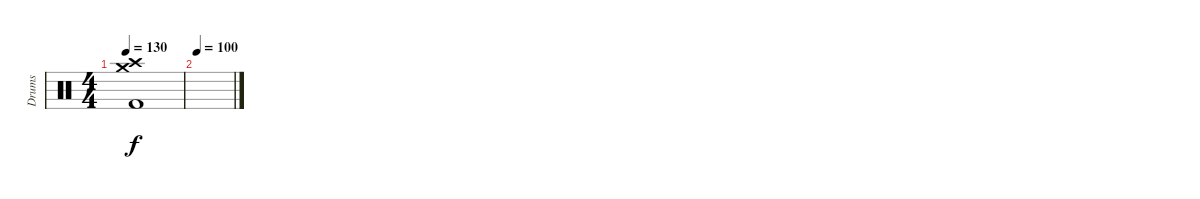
\track ("Drums" "Drums") {instrument percussion}
\staff {score}
\articulation defaults
\ts (4 4)
\tempo 130
\clef neutral
\ks c
("Kick (hit) 2" "Crash high (hit)" "Crash medium (hit)").1{dy f} |
\tempo 100
